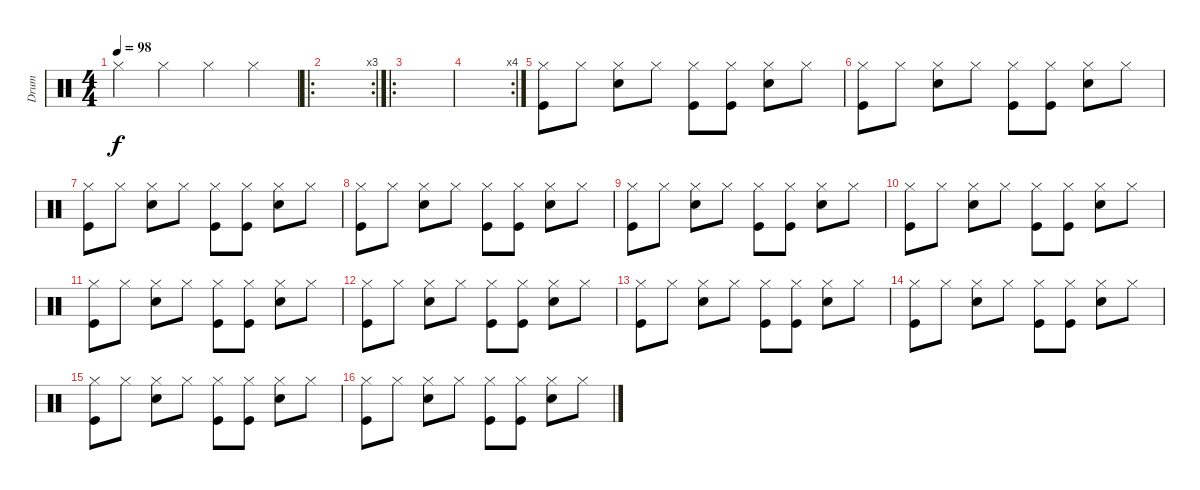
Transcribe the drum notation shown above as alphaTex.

\track ("Drum" "Drum") {instrument percussion}
\staff {score}
\articulation defaults
\ts (4 4)
\tempo 98
\clef neutral
\ks c "Hi-Hat (closed)".4{dy f} "Hi-Hat (closed)".4 "Hi-Hat (closed)".4 "Hi-Hat (closed)".4
|
\ro
\rc 3
|
\ro
|
\rc 4
|
("Hi-Hat (closed)" "Kick (hit)").8 "Hi-Hat (closed)".8 ("Hi-Hat (closed)" "Snare (hit) 2").8 "Hi-Hat (closed)".8 ("Hi-Hat (closed)" "Kick (hit)").8 ("Hi-Hat (closed)" "Kick (hit)").8 ("Hi-Hat (closed)" "Snare (hit) 2").8 "Hi-Hat (closed)".8 |
("Hi-Hat (closed)" "Kick (hit)").8 "Hi-Hat (closed)".8 ("Hi-Hat (closed)" "Snare (hit) 2").8 "Hi-Hat (closed)".8 ("Hi-Hat (closed)" "Kick (hit)").8 ("Hi-Hat (closed)" "Kick (hit)").8 ("Hi-Hat (closed)" "Snare (hit) 2").8 "Hi-Hat (closed)".8 |
("Hi-Hat (closed)" "Kick (hit)").8 "Hi-Hat (closed)".8 ("Hi-Hat (closed)" "Snare (hit) 2").8 "Hi-Hat (closed)".8 ("Hi-Hat (closed)" "Kick (hit)").8 ("Hi-Hat (closed)" "Kick (hit)").8 ("Hi-Hat (closed)" "Snare (hit) 2").8 "Hi-Hat (closed)".8 |
("Hi-Hat (closed)" "Kick (hit)").8 "Hi-Hat (closed)".8 ("Hi-Hat (closed)" "Snare (hit) 2").8 "Hi-Hat (closed)".8 ("Hi-Hat (closed)" "Kick (hit)").8 ("Hi-Hat (closed)" "Kick (hit)").8 ("Hi-Hat (closed)" "Snare (hit) 2").8 "Hi-Hat (closed)".8 |
("Hi-Hat (closed)" "Kick (hit)").8 "Hi-Hat (closed)".8 ("Hi-Hat (closed)" "Snare (hit) 2").8 "Hi-Hat (closed)".8 ("Hi-Hat (closed)" "Kick (hit)").8 ("Hi-Hat (closed)" "Kick (hit)").8 ("Hi-Hat (closed)" "Snare (hit) 2").8 "Hi-Hat (closed)".8 |
("Hi-Hat (closed)" "Kick (hit)").8 "Hi-Hat (closed)".8 ("Hi-Hat (closed)" "Snare (hit) 2").8 "Hi-Hat (closed)".8 ("Hi-Hat (closed)" "Kick (hit)").8 ("Hi-Hat (closed)" "Kick (hit)").8 ("Hi-Hat (closed)" "Snare (hit) 2").8 "Hi-Hat (closed)".8 |
("Hi-Hat (closed)" "Kick (hit)").8 "Hi-Hat (closed)".8 ("Hi-Hat (closed)" "Snare (hit) 2").8 "Hi-Hat (closed)".8 ("Hi-Hat (closed)" "Kick (hit)").8 ("Hi-Hat (closed)" "Kick (hit)").8 ("Hi-Hat (closed)" "Snare (hit) 2").8 "Hi-Hat (closed)".8 |
("Hi-Hat (closed)" "Kick (hit)").8 "Hi-Hat (closed)".8 ("Hi-Hat (closed)" "Snare (hit) 2").8 "Hi-Hat (closed)".8 ("Hi-Hat (closed)" "Kick (hit)").8 ("Hi-Hat (closed)" "Kick (hit)").8 ("Hi-Hat (closed)" "Snare (hit) 2").8 "Hi-Hat (closed)".8 |
("Hi-Hat (closed)" "Kick (hit)").8 "Hi-Hat (closed)".8 ("Hi-Hat (closed)" "Snare (hit) 2").8 "Hi-Hat (closed)".8 ("Hi-Hat (closed)" "Kick (hit)").8 ("Hi-Hat (closed)" "Kick (hit)").8 ("Hi-Hat (closed)" "Snare (hit) 2").8 "Hi-Hat (closed)".8 |
("Hi-Hat (closed)" "Kick (hit)").8 "Hi-Hat (closed)".8 ("Hi-Hat (closed)" "Snare (hit) 2").8 "Hi-Hat (closed)".8 ("Hi-Hat (closed)" "Kick (hit)").8 ("Hi-Hat (closed)" "Kick (hit)").8 ("Hi-Hat (closed)" "Snare (hit) 2").8 "Hi-Hat (closed)".8 |
("Hi-Hat (closed)" "Kick (hit)").8 "Hi-Hat (closed)".8 ("Hi-Hat (closed)" "Snare (hit) 2").8 "Hi-Hat (closed)".8 ("Hi-Hat (closed)" "Kick (hit)").8 ("Hi-Hat (closed)" "Kick (hit)").8 ("Hi-Hat (closed)" "Snare (hit) 2").8 "Hi-Hat (closed)".8 |
("Hi-Hat (closed)" "Kick (hit)").8 "Hi-Hat (closed)".8 ("Hi-Hat (closed)" "Snare (hit) 2").8 "Hi-Hat (closed)".8 ("Hi-Hat (closed)" "Kick (hit)").8 ("Hi-Hat (closed)" "Kick (hit)").8 ("Hi-Hat (closed)" "Snare (hit) 2").8 "Hi-Hat (closed)".8
